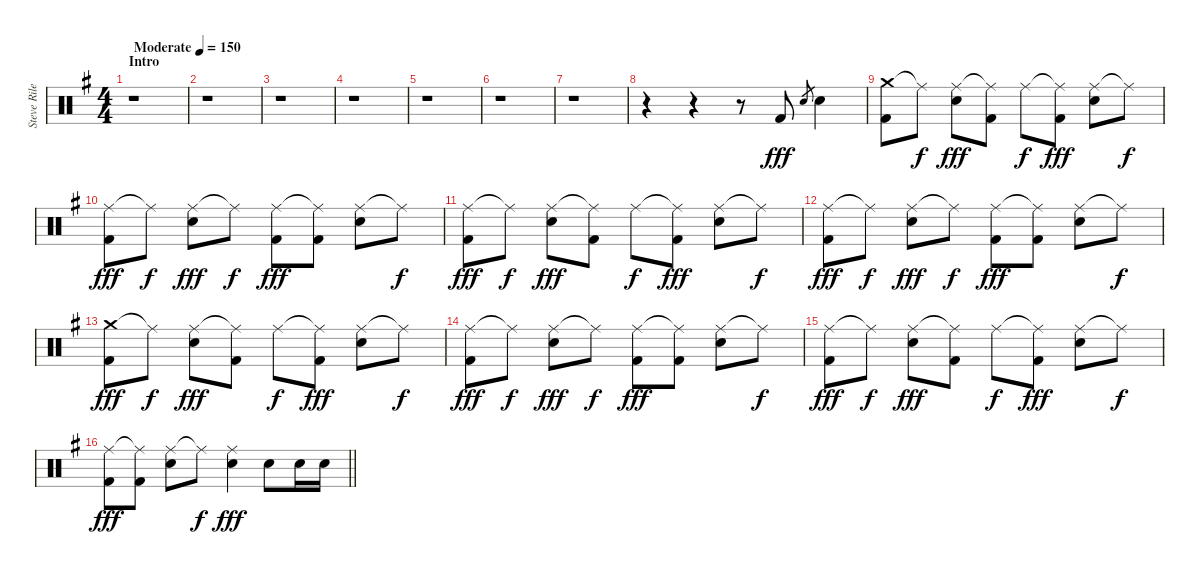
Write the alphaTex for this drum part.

\track ("Steve Riley - Drums" "Steve Rile") {instrument percussion}
\staff {score}
\articulation defaults
\ts (4 4)
\section ("" "Intro")
\tempo (150 "Moderate")
\clef neutral
\ks g
r.1{dy fff} |
r.1 |
r.1 |
r.1 |
r.1 |
r.1 |
r.1 |
r.4 r.4 r.8 "Kick (hit) 2".8 "Electric Snare (hit)".8{gr} "Electric Snare (hit)".4 |
("Crash medium (hit)" "Kick (hit) 2").8 "Ride (middle)"{t}.8{dy f} ("Ride (middle)" "Electric Snare (hit)").8{dy fff} ("Ride (middle)"{t} "Kick (hit) 2").8 "Ride (middle)".8{dy f} ("Ride (middle)"{t} "Kick (hit) 2").8{dy fff} ("Ride (middle)" "Electric Snare (hit)").8 "Ride (middle)"{t}.8{dy f} |
("Ride (middle)" "Kick (hit) 2").8{dy fff} "Ride (middle)"{t}.8{dy f} ("Ride (middle)" "Electric Snare (hit)").8{dy fff} "Ride (middle)"{t}.8{dy f} ("Ride (middle)" "Kick (hit) 2").8{dy fff} ("Ride (middle)"{t} "Kick (hit) 2").8 ("Ride (middle)" "Electric Snare (hit)").8 "Ride (middle)"{t}.8{dy f} |
("Ride (middle)" "Kick (hit) 2").8{dy fff} "Ride (middle)"{t}.8{dy f} ("Ride (middle)" "Electric Snare (hit)").8{dy fff} ("Ride (middle)"{t} "Kick (hit) 2").8 "Ride (middle)".8{dy f} ("Ride (middle)"{t} "Kick (hit) 2").8{dy fff} ("Ride (middle)" "Electric Snare (hit)").8 "Ride (middle)"{t}.8{dy f} |
("Ride (middle)" "Kick (hit) 2").8{dy fff} "Ride (middle)"{t}.8{dy f} ("Ride (middle)" "Electric Snare (hit)").8{dy fff} "Ride (middle)"{t}.8{dy f} ("Ride (middle)" "Kick (hit) 2").8{dy fff} ("Ride (middle)"{t} "Kick (hit) 2").8 ("Ride (middle)" "Electric Snare (hit)").8 "Ride (middle)"{t}.8{dy f} |
("Crash medium (hit)" "Kick (hit) 2").8{dy fff} "Ride (middle)"{t}.8{dy f} ("Ride (middle)" "Electric Snare (hit)").8{dy fff} ("Ride (middle)"{t} "Kick (hit) 2").8 "Ride (middle)".8{dy f} ("Ride (middle)"{t} "Kick (hit) 2").8{dy fff} ("Ride (middle)" "Electric Snare (hit)").8 "Ride (middle)"{t}.8{dy f} |
("Ride (middle)" "Kick (hit) 2").8{dy fff} "Ride (middle)"{t}.8{dy f} ("Ride (middle)" "Electric Snare (hit)").8{dy fff} "Ride (middle)"{t}.8{dy f} ("Ride (middle)" "Kick (hit) 2").8{dy fff} ("Ride (middle)"{t} "Kick (hit) 2").8 ("Ride (middle)" "Electric Snare (hit)").8 "Ride (middle)"{t}.8{dy f} |
("Ride (middle)" "Kick (hit) 2").8{dy fff} "Ride (middle)"{t}.8{dy f} ("Ride (middle)" "Electric Snare (hit)").8{dy fff} ("Ride (middle)"{t} "Kick (hit) 2").8 "Ride (middle)".8{dy f} ("Ride (middle)"{t} "Kick (hit) 2").8{dy fff} ("Ride (middle)" "Electric Snare (hit)").8 "Ride (middle)"{t}.8{dy f} |
\barLineRight lightlight
("Ride (middle)" "Kick (hit) 2").8{dy fff} ("Ride (middle)"{t} "Kick (hit) 2").8 ("Ride (middle)" "Electric Snare (hit)").8 "Ride (middle)"{t}.8{dy f} ("Ride (middle)" "Electric Snare (hit)").4{dy fff} "Electric Snare (hit)".8 "Electric Snare (hit)".16 "Electric Snare (hit)".16
